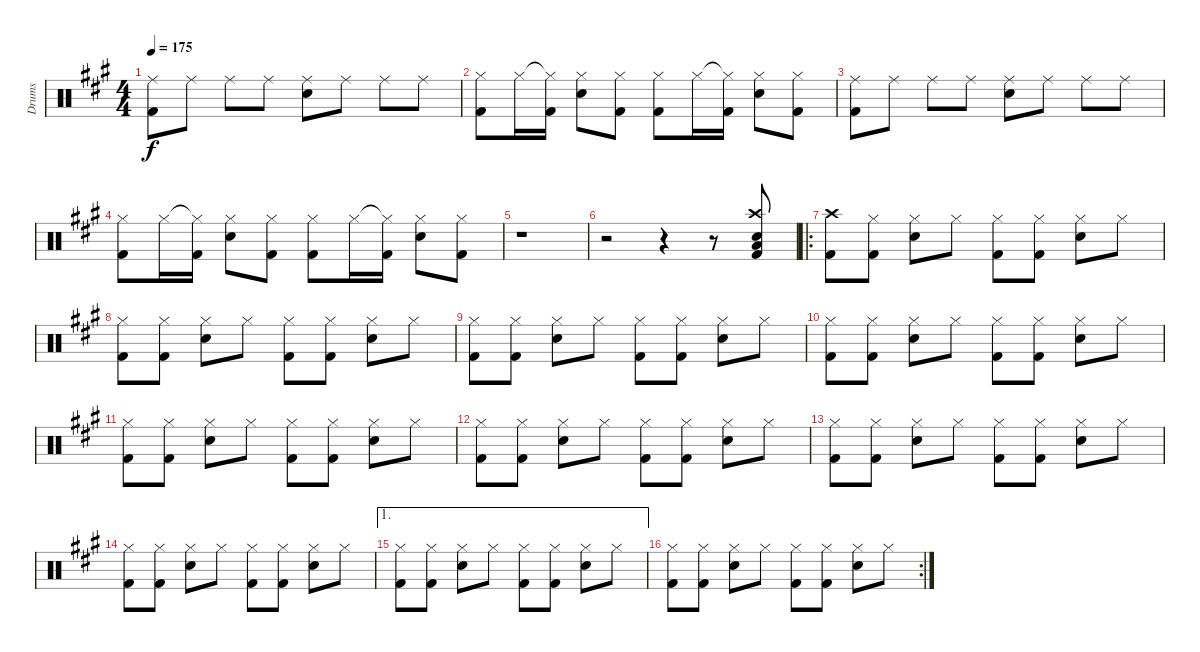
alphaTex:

\track ("Drums" "Drums") {instrument percussion}
\staff {score}
\articulation defaults
\ts (4 4)
\tempo 175
\clef neutral
\ks f#minor
("Ride (middle)" "Kick (hit) 2").8{dy f} "Ride (middle)".8 "Ride (middle)".8 "Ride (middle)".8 ("Ride (middle)" "Snare (hit) 2").8 "Ride (middle)".8 "Ride (middle)".8 "Ride (middle)".8 |
("Hi-Hat (closed)" "Kick (hit) 2").8 "Hi-Hat (closed)".16 ("Hi-Hat (closed)"{t} "Kick (hit) 2").16 ("Hi-Hat (closed)" "Snare (hit) 2").8 ("Hi-Hat (closed)" "Kick (hit) 2").8 ("Hi-Hat (closed)" "Kick (hit) 2").8 "Hi-Hat (closed)".16 ("Hi-Hat (closed)"{t} "Kick (hit) 2").16 ("Hi-Hat (closed)" "Snare (hit) 2").8 ("Hi-Hat (closed)" "Kick (hit) 2").8 |
("Ride (middle)" "Kick (hit) 2").8 "Ride (middle)".8 "Ride (middle)".8 "Ride (middle)".8 ("Ride (middle)" "Snare (hit) 2").8 "Ride (middle)".8 "Ride (middle)".8 "Ride (middle)".8 |
("Hi-Hat (closed)" "Kick (hit) 2").8 "Hi-Hat (closed)".16 ("Hi-Hat (closed)"{t} "Kick (hit) 2").16 ("Hi-Hat (closed)" "Snare (hit) 2").8 ("Hi-Hat (closed)" "Kick (hit) 2").8 ("Hi-Hat (closed)" "Kick (hit) 2").8 "Hi-Hat (closed)".16 ("Hi-Hat (closed)"{t} "Kick (hit) 2").16 ("Hi-Hat (closed)" "Snare (hit) 2").8 ("Hi-Hat (closed)" "Kick (hit) 2").8 |
r.1 |
r.2 r.4 r.8 ("Crash high (hit)" "Snare (hit) 2" "Kick (hit) 2" "Low Tom (hit)").8 |
\ro
("Crash high (hit)" "Kick (hit) 2").8 ("Hi-Hat (closed)" "Kick (hit) 2").8 ("Hi-Hat (closed)" "Snare (hit) 2").8 "Hi-Hat (closed)".8 ("Hi-Hat (closed)" "Kick (hit) 2").8 ("Hi-Hat (closed)" "Kick (hit) 2").8 ("Hi-Hat (closed)" "Snare (hit) 2").8 "Hi-Hat (closed)".8 |
("Hi-Hat (closed)" "Kick (hit) 2").8 ("Hi-Hat (closed)" "Kick (hit) 2").8 ("Hi-Hat (closed)" "Snare (hit) 2").8 "Hi-Hat (closed)".8 ("Hi-Hat (closed)" "Kick (hit) 2").8 ("Hi-Hat (closed)" "Kick (hit) 2").8 ("Hi-Hat (closed)" "Snare (hit) 2").8 "Hi-Hat (closed)".8 |
("Hi-Hat (closed)" "Kick (hit) 2").8 ("Hi-Hat (closed)" "Kick (hit) 2").8 ("Hi-Hat (closed)" "Snare (hit) 2").8 "Hi-Hat (closed)".8 ("Hi-Hat (closed)" "Kick (hit) 2").8 ("Hi-Hat (closed)" "Kick (hit) 2").8 ("Hi-Hat (closed)" "Snare (hit) 2").8 "Hi-Hat (closed)".8 |
("Hi-Hat (closed)" "Kick (hit) 2").8 ("Hi-Hat (closed)" "Kick (hit) 2").8 ("Hi-Hat (closed)" "Snare (hit) 2").8 "Hi-Hat (closed)".8 ("Hi-Hat (closed)" "Kick (hit) 2").8 ("Hi-Hat (closed)" "Kick (hit) 2").8 ("Hi-Hat (closed)" "Snare (hit) 2").8 "Hi-Hat (closed)".8 |
("Hi-Hat (closed)" "Kick (hit) 2").8 ("Hi-Hat (closed)" "Kick (hit) 2").8 ("Hi-Hat (closed)" "Snare (hit) 2").8 "Hi-Hat (closed)".8 ("Hi-Hat (closed)" "Kick (hit) 2").8 ("Hi-Hat (closed)" "Kick (hit) 2").8 ("Hi-Hat (closed)" "Snare (hit) 2").8 "Hi-Hat (closed)".8 |
("Hi-Hat (closed)" "Kick (hit) 2").8 ("Hi-Hat (closed)" "Kick (hit) 2").8 ("Hi-Hat (closed)" "Snare (hit) 2").8 "Hi-Hat (closed)".8 ("Hi-Hat (closed)" "Kick (hit) 2").8 ("Hi-Hat (closed)" "Kick (hit) 2").8 ("Hi-Hat (closed)" "Snare (hit) 2").8 "Hi-Hat (closed)".8 |
("Hi-Hat (closed)" "Kick (hit) 2").8 ("Hi-Hat (closed)" "Kick (hit) 2").8 ("Hi-Hat (closed)" "Snare (hit) 2").8 "Hi-Hat (closed)".8 ("Hi-Hat (closed)" "Kick (hit) 2").8 ("Hi-Hat (closed)" "Kick (hit) 2").8 ("Hi-Hat (closed)" "Snare (hit) 2").8 "Hi-Hat (closed)".8 |
("Hi-Hat (closed)" "Kick (hit) 2").8 ("Hi-Hat (closed)" "Kick (hit) 2").8 ("Hi-Hat (closed)" "Snare (hit) 2").8 "Hi-Hat (closed)".8 ("Hi-Hat (closed)" "Kick (hit) 2").8 ("Hi-Hat (closed)" "Kick (hit) 2").8 ("Hi-Hat (closed)" "Snare (hit) 2").8 "Hi-Hat (closed)".8 |
\ae 1
("Hi-Hat (closed)" "Kick (hit) 2").8 ("Hi-Hat (closed)" "Kick (hit) 2").8 ("Hi-Hat (closed)" "Snare (hit) 2").8 "Hi-Hat (closed)".8 ("Hi-Hat (closed)" "Kick (hit) 2").8 ("Hi-Hat (closed)" "Kick (hit) 2").8 ("Hi-Hat (closed)" "Snare (hit) 2").8 "Hi-Hat (closed)".8 |
\rc 2
("Hi-Hat (closed)" "Kick (hit) 2").8 ("Hi-Hat (closed)" "Kick (hit) 2").8 ("Hi-Hat (closed)" "Snare (hit) 2").8 "Hi-Hat (closed)".8 ("Hi-Hat (closed)" "Kick (hit) 2").8 ("Hi-Hat (closed)" "Kick (hit) 2").8 ("Hi-Hat (closed)" "Snare (hit) 2").8 "Hi-Hat (closed)".8
